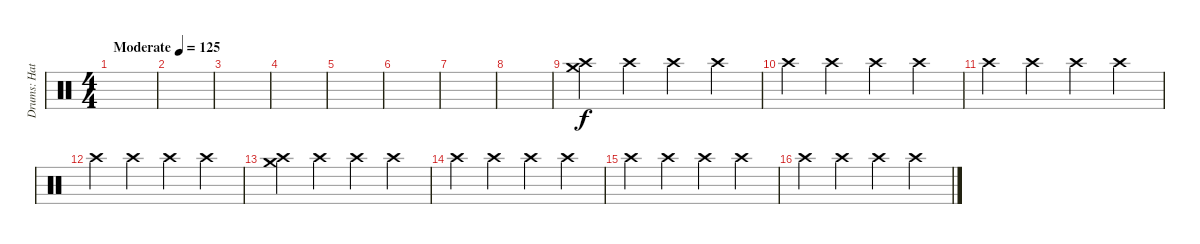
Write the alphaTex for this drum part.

\track ("Drums: Hats, Etc" "Drums: Hat") {instrument percussion}
\staff {score}
\articulation defaults
\ts (4 4)
\tempo (125 "Moderate")
\clef neutral
\ks c
|
|
|
|
|
|
|
|
("Crash medium (hit)" "Crash high (hit)").4 "Crash high (hit)".4 "Crash high (hit)".4 "Crash high (hit)".4 |
"Crash high (hit)".4 "Crash high (hit)".4 "Crash high (hit)".4 "Crash high (hit)".4 |
"Crash high (hit)".4 "Crash high (hit)".4 "Crash high (hit)".4 "Crash high (hit)".4 |
"Crash high (hit)".4 "Crash high (hit)".4 "Crash high (hit)".4 "Crash high (hit)".4 |
("Crash medium (hit)" "Crash high (hit)").4 "Crash high (hit)".4 "Crash high (hit)".4 "Crash high (hit)".4 |
"Crash high (hit)".4 "Crash high (hit)".4 "Crash high (hit)".4 "Crash high (hit)".4 |
"Crash high (hit)".4 "Crash high (hit)".4 "Crash high (hit)".4 "Crash high (hit)".4 |
"Crash high (hit)".4 "Crash high (hit)".4 "Crash high (hit)".4 "Crash high (hit)".4
